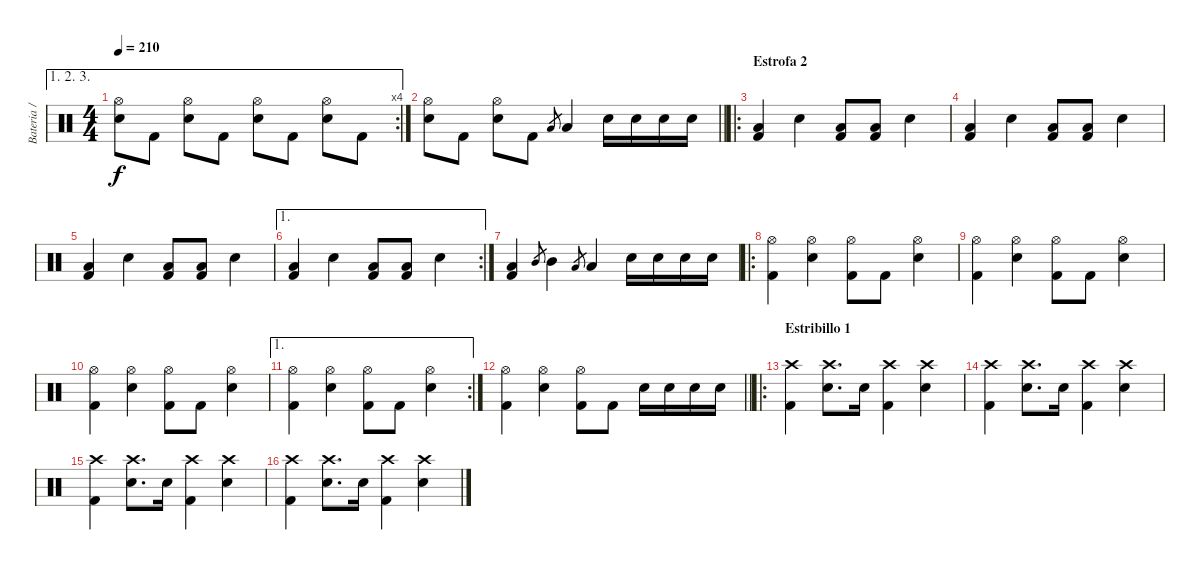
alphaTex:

\track ("Bateria / Percusión" "Bateria / ") {instrument percussion}
\staff {score}
\articulation defaults
\ae (1 2 3)
\rc 4
\ts (4 4)
\tempo 210
\clef neutral
\ks c
("Hi-Hat (open)" "Electric Snare (hit)").8{dy f} "Kick (hit) 2".8 ("Hi-Hat (open)" "Electric Snare (hit)").8 "Kick (hit) 2".8 ("Hi-Hat (open)" "Electric Snare (hit)").8 "Kick (hit) 2".8 ("Hi-Hat (open)" "Electric Snare (hit)").8 "Kick (hit) 2".8 |
\barLineRight lightlight
("Hi-Hat (open)" "Electric Snare (hit)").8 "Kick (hit) 2".8 ("Hi-Hat (open)" "Electric Snare (hit)").8 "Kick (hit) 2".8 "Low Tom (hit)".8{gr} "Low Tom (hit)".4 "Electric Snare (hit)".16 "Electric Snare (hit)".16 "Electric Snare (hit)".16 "Electric Snare (hit)".16 |
\ro
\section ("" "Estrofa 2")
("Low Floor Tom (hit)" "Kick (hit) 2").4 "Electric Snare (hit)".4 ("Low Floor Tom (hit)" "Kick (hit) 2").8 ("Low Floor Tom (hit)" "Kick (hit) 2").8 "Electric Snare (hit)".4 |
("Low Floor Tom (hit)" "Kick (hit) 2").4 "Electric Snare (hit)".4 ("Low Floor Tom (hit)" "Kick (hit) 2").8 ("Low Floor Tom (hit)" "Kick (hit) 2").8 "Electric Snare (hit)".4 |
("Low Floor Tom (hit)" "Kick (hit) 2").4 "Electric Snare (hit)".4 ("Low Floor Tom (hit)" "Kick (hit) 2").8 ("Low Floor Tom (hit)" "Kick (hit) 2").8 "Electric Snare (hit)".4 |
\ae 1
\rc 2
("Low Floor Tom (hit)" "Kick (hit) 2").4 "Electric Snare (hit)".4 ("Low Floor Tom (hit)" "Kick (hit) 2").8 ("Low Floor Tom (hit)" "Kick (hit) 2").8 "Electric Snare (hit)".4 |
("Low Floor Tom (hit)" "Kick (hit) 2").4 "Mid Tom (hit)".8{gr} "Mid Tom (hit)".4 "Low Tom (hit)".8{gr} "Low Tom (hit)".4 "Electric Snare (hit)".16 "Electric Snare (hit)".16 "Electric Snare (hit)".16 "Electric Snare (hit)".16 |
\ro
("Hi-Hat (open)" "Kick (hit) 2").4 ("Hi-Hat (open)" "Electric Snare (hit)").4 ("Hi-Hat (open)" "Kick (hit) 2").8 "Kick (hit) 2".8 ("Hi-Hat (open)" "Electric Snare (hit)").4 |
("Hi-Hat (open)" "Kick (hit) 2").4 ("Hi-Hat (open)" "Electric Snare (hit)").4 ("Hi-Hat (open)" "Kick (hit) 2").8 "Kick (hit) 2".8 ("Hi-Hat (open)" "Electric Snare (hit)").4 |
("Hi-Hat (open)" "Kick (hit) 2").4 ("Hi-Hat (open)" "Electric Snare (hit)").4 ("Hi-Hat (open)" "Kick (hit) 2").8 "Kick (hit) 2".8 ("Hi-Hat (open)" "Electric Snare (hit)").4 |
\ae 1
\rc 2
("Hi-Hat (open)" "Kick (hit) 2").4 ("Hi-Hat (open)" "Electric Snare (hit)").4 ("Hi-Hat (open)" "Kick (hit) 2").8 "Kick (hit) 2".8 ("Hi-Hat (open)" "Electric Snare (hit)").4 |
\barLineRight lightlight
("Hi-Hat (open)" "Kick (hit) 2").4 ("Hi-Hat (open)" "Electric Snare (hit)").4 ("Hi-Hat (open)" "Kick (hit) 2").8 "Kick (hit) 2".8 "Electric Snare (hit)".16 "Electric Snare (hit)".16 "Electric Snare (hit)".16 "Electric Snare (hit)".16 |
\ro
\section ("" "Estribillo 1")
("Crash high (hit)" "Kick (hit) 2").4 ("Crash high (hit)" "Electric Snare (hit)").8{d} "Electric Snare (hit)".16 ("Crash high (hit)" "Kick (hit) 2").4 ("Crash high (hit)" "Electric Snare (hit)").4 |
("Crash high (hit)" "Kick (hit) 2").4 ("Crash high (hit)" "Electric Snare (hit)").8{d} "Electric Snare (hit)".16 ("Crash high (hit)" "Kick (hit) 2").4 ("Crash high (hit)" "Electric Snare (hit)").4 |
("Crash high (hit)" "Kick (hit) 2").4 ("Crash high (hit)" "Electric Snare (hit)").8{d} "Electric Snare (hit)".16 ("Crash high (hit)" "Kick (hit) 2").4 ("Crash high (hit)" "Electric Snare (hit)").4 |
("Crash high (hit)" "Kick (hit) 2").4 ("Crash high (hit)" "Electric Snare (hit)").8{d} "Electric Snare (hit)".16 ("Crash high (hit)" "Kick (hit) 2").4 ("Crash high (hit)" "Electric Snare (hit)").4
